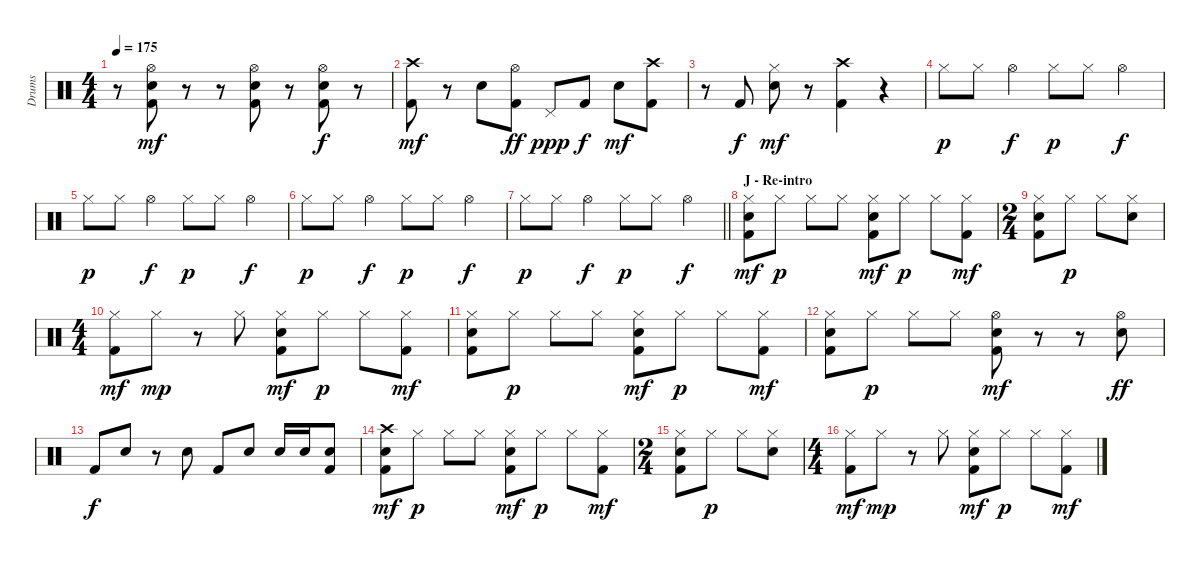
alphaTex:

\track ("Drums" "Drums") {instrument percussion}
\staff {score}
\articulation defaults
\ts (4 4)
\tempo 175
\clef neutral
\ks c
r.8{dy mf} ("Hi-Hat (open)" "Electric Snare (hit)" "Kick (hit) 2").8 r.8 r.8 ("Hi-Hat (open)" "Electric Snare (hit)" "Kick (hit) 2").8 r.8 ("Hi-Hat (open)" "Electric Snare (hit)" "Kick (hit) 2").8{dy f} r.8 |
("Crash high (hit)" "Kick (hit) 2").8{dy mf} r.8 "Electric Snare (hit)".8 ("Hi-Hat (open)" "Kick (hit) 2").8{dy ff} "Pedal Hi-Hat (hit)".8{dy ppp} "Kick (hit) 2".8{dy f} "Electric Snare (hit)".8{dy mf} ("Crash high (hit)" "Kick (hit) 2").8 |
r.8 "Kick (hit) 2".8{dy f} ("Hi-Hat (closed)" "Electric Snare (hit)").8{dy mf} r.8 ("Crash high (hit)" "Kick (hit) 2").4 r.4 |
"Hi-Hat (closed)".8{dy p} "Hi-Hat (closed)".8 "Hi-Hat (open)".4{dy f} "Hi-Hat (closed)".8{dy p} "Hi-Hat (closed)".8 "Hi-Hat (open)".4{dy f} |
"Hi-Hat (closed)".8{dy p} "Hi-Hat (closed)".8 "Hi-Hat (open)".4{dy f} "Hi-Hat (closed)".8{dy p} "Hi-Hat (closed)".8 "Hi-Hat (open)".4{dy f} |
"Hi-Hat (closed)".8{dy p} "Hi-Hat (closed)".8 "Hi-Hat (open)".4{dy f} "Hi-Hat (closed)".8{dy p} "Hi-Hat (closed)".8 "Hi-Hat (open)".4{dy f} |
\barLineRight lightlight "Hi-Hat (closed)".8{dy p} "Hi-Hat (closed)".8 "Hi-Hat (open)".4{dy f} "Hi-Hat (closed)".8{dy p} "Hi-Hat (closed)".8 "Hi-Hat (open)".4{dy f}
|
\section ("" "J - Re-intro")
("Hi-Hat (closed)" "Electric Snare (hit)" "Kick (hit) 2").8{dy mf} "Hi-Hat (closed)".8{dy p} "Hi-Hat (closed)".8 "Hi-Hat (closed)".8 ("Hi-Hat (closed)" "Electric Snare (hit)" "Kick (hit) 2").8{dy mf} "Hi-Hat (closed)".8{dy p} "Hi-Hat (closed)".8 ("Hi-Hat (closed)" "Kick (hit) 2").8{dy mf} |
\ts (2 4)
("Hi-Hat (closed)" "Electric Snare (hit)" "Kick (hit) 2").8 "Hi-Hat (closed)".8{dy p} "Hi-Hat (closed)".8 ("Hi-Hat (closed)" "Electric Snare (hit)").8 |
\ts (4 4)
("Hi-Hat (closed)" "Kick (hit) 2").8{dy mf} "Hi-Hat (closed)".8{dy mp} r.8 "Hi-Hat (closed)".8 ("Hi-Hat (closed)" "Electric Snare (hit)" "Kick (hit) 2").8{dy mf} "Hi-Hat (closed)".8{dy p} "Hi-Hat (closed)".8 ("Hi-Hat (closed)" "Kick (hit) 2").8{dy mf} |
("Hi-Hat (closed)" "Electric Snare (hit)" "Kick (hit) 2").8 "Hi-Hat (closed)".8{dy p} "Hi-Hat (closed)".8 "Hi-Hat (closed)".8 ("Hi-Hat (closed)" "Electric Snare (hit)" "Kick (hit) 2").8{dy mf} "Hi-Hat (closed)".8{dy p} "Hi-Hat (closed)".8 ("Hi-Hat (closed)" "Kick (hit) 2").8{dy mf} |
("Hi-Hat (closed)" "Electric Snare (hit)" "Kick (hit) 2").8 "Hi-Hat (closed)".8{dy p} "Hi-Hat (closed)".8 "Hi-Hat (closed)".8 ("Hi-Hat (open)" "Electric Snare (hit)" "Kick (hit) 2").8{dy mf} r.8 r.8 ("Hi-Hat (open)" "Electric Snare (hit)").8{dy ff} |
"Kick (hit) 2".8{dy f} "Electric Snare (hit)".8 r.8 "Electric Snare (hit)".8 "Kick (hit) 2".8 "Electric Snare (hit)".8 "Electric Snare (hit)".16 "Electric Snare (hit)".16 ("Electric Snare (hit)" "Kick (hit) 2").8 |
("Crash high (hit)" "Electric Snare (hit)" "Kick (hit) 2").8{dy mf} "Hi-Hat (closed)".8{dy p} "Hi-Hat (closed)".8 "Hi-Hat (closed)".8 ("Hi-Hat (closed)" "Electric Snare (hit)" "Kick (hit) 2").8{dy mf} "Hi-Hat (closed)".8{dy p} "Hi-Hat (closed)".8 ("Hi-Hat (closed)" "Kick (hit) 2").8{dy mf} |
\ts (2 4)
("Hi-Hat (closed)" "Electric Snare (hit)" "Kick (hit) 2").8 "Hi-Hat (closed)".8{dy p} "Hi-Hat (closed)".8 ("Hi-Hat (closed)" "Electric Snare (hit)").8 |
\ts (4 4)
("Hi-Hat (closed)" "Kick (hit) 2").8{dy mf} "Hi-Hat (closed)".8{dy mp} r.8 "Hi-Hat (closed)".8 ("Hi-Hat (closed)" "Electric Snare (hit)" "Kick (hit) 2").8{dy mf} "Hi-Hat (closed)".8{dy p} "Hi-Hat (closed)".8 ("Hi-Hat (closed)" "Kick (hit) 2").8{dy mf}
